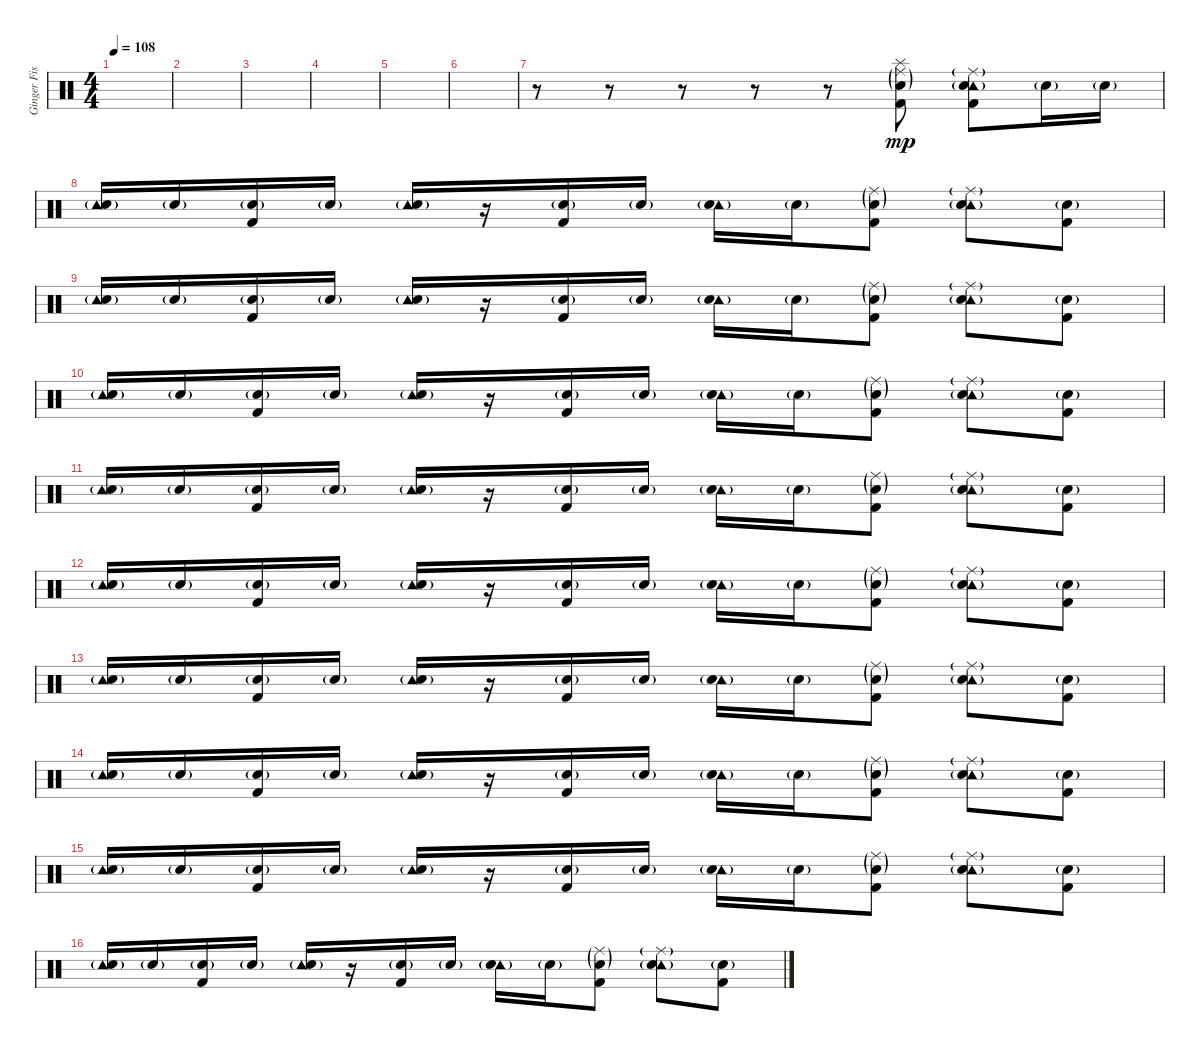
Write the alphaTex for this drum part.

\track ("Ginger Fish" "Ginger Fis") {instrument percussion}
\staff {score}
\articulation defaults
\ts (4 4)
\tempo 108
\clef neutral
\ks c
|
|
|
|
|
|
r.8 r.8 r.8 r.8 r.8 ("Splash (hit)" "Ride (middle)"{g} "Electric Snare (hit)"{g} "Kick (hit) 2").8{dy mp} ("Tambourine (hit)" "Ride (middle)"{g} "Electric Snare (hit)"{g} "Kick (hit) 2").8 "Electric Snare (hit)"{g}.16 "Electric Snare (hit)"{g}.16 |
("Tambourine (hit)" "Electric Snare (hit)"{g}).16 "Electric Snare (hit)"{g}.16 ("Electric Snare (hit)"{g} "Kick (hit) 2").16 "Electric Snare (hit)"{g}.16 ("Tambourine (hit)" "Electric Snare (hit)"{g}).16 r.16 ("Electric Snare (hit)"{g} "Kick (hit) 2").16 "Electric Snare (hit)"{g}.16 ("Tambourine (hit)" "Electric Snare (hit)"{g}).16 "Electric Snare (hit)"{g}.16 ("Ride (middle)"{g} "Electric Snare (hit)"{g} "Kick (hit) 2").8 ("Tambourine (hit)" "Ride (middle)"{g} "Electric Snare (hit)"{g}).8 ("Snare (hit) 2"{g} "Kick (hit) 2").8 |
("Tambourine (hit)" "Electric Snare (hit)"{g}).16 "Electric Snare (hit)"{g}.16 ("Electric Snare (hit)"{g} "Kick (hit) 2").16 "Electric Snare (hit)"{g}.16 ("Tambourine (hit)" "Electric Snare (hit)"{g}).16 r.16 ("Electric Snare (hit)"{g} "Kick (hit) 2").16 "Electric Snare (hit)"{g}.16 ("Tambourine (hit)" "Electric Snare (hit)"{g}).16 "Electric Snare (hit)"{g}.16 ("Ride (middle)"{g} "Electric Snare (hit)"{g} "Kick (hit) 2").8 ("Tambourine (hit)" "Ride (middle)"{g} "Electric Snare (hit)"{g}).8 ("Snare (hit) 2"{g} "Kick (hit) 2").8 |
("Tambourine (hit)" "Electric Snare (hit)"{g}).16 "Electric Snare (hit)"{g}.16 ("Electric Snare (hit)"{g} "Kick (hit) 2").16 "Electric Snare (hit)"{g}.16 ("Tambourine (hit)" "Electric Snare (hit)"{g}).16 r.16 ("Electric Snare (hit)"{g} "Kick (hit) 2").16 "Electric Snare (hit)"{g}.16 ("Tambourine (hit)" "Electric Snare (hit)"{g}).16 "Electric Snare (hit)"{g}.16 ("Ride (middle)"{g} "Electric Snare (hit)"{g} "Kick (hit) 2").8 ("Tambourine (hit)" "Ride (middle)"{g} "Electric Snare (hit)"{g}).8 ("Snare (hit) 2"{g} "Kick (hit) 2").8 |
("Tambourine (hit)" "Electric Snare (hit)"{g}).16 "Electric Snare (hit)"{g}.16 ("Electric Snare (hit)"{g} "Kick (hit) 2").16 "Electric Snare (hit)"{g}.16 ("Tambourine (hit)" "Electric Snare (hit)"{g}).16 r.16 ("Electric Snare (hit)"{g} "Kick (hit) 2").16 "Electric Snare (hit)"{g}.16 ("Tambourine (hit)" "Electric Snare (hit)"{g}).16 "Electric Snare (hit)"{g}.16 ("Ride (middle)"{g} "Electric Snare (hit)"{g} "Kick (hit) 2").8 ("Tambourine (hit)" "Ride (middle)"{g} "Electric Snare (hit)"{g}).8 ("Snare (hit) 2"{g} "Kick (hit) 2").8 |
("Tambourine (hit)" "Electric Snare (hit)"{g}).16 "Electric Snare (hit)"{g}.16 ("Electric Snare (hit)"{g} "Kick (hit) 2").16 "Electric Snare (hit)"{g}.16 ("Tambourine (hit)" "Electric Snare (hit)"{g}).16 r.16 ("Electric Snare (hit)"{g} "Kick (hit) 2").16 "Electric Snare (hit)"{g}.16 ("Tambourine (hit)" "Electric Snare (hit)"{g}).16 "Electric Snare (hit)"{g}.16 ("Ride (middle)"{g} "Electric Snare (hit)"{g} "Kick (hit) 2").8 ("Tambourine (hit)" "Ride (middle)"{g} "Electric Snare (hit)"{g}).8 ("Snare (hit) 2"{g} "Kick (hit) 2").8 |
("Tambourine (hit)" "Electric Snare (hit)"{g}).16 "Electric Snare (hit)"{g}.16 ("Electric Snare (hit)"{g} "Kick (hit) 2").16 "Electric Snare (hit)"{g}.16 ("Tambourine (hit)" "Electric Snare (hit)"{g}).16 r.16 ("Electric Snare (hit)"{g} "Kick (hit) 2").16 "Electric Snare (hit)"{g}.16 ("Tambourine (hit)" "Electric Snare (hit)"{g}).16 "Electric Snare (hit)"{g}.16 ("Ride (middle)"{g} "Electric Snare (hit)"{g} "Kick (hit) 2").8 ("Tambourine (hit)" "Ride (middle)"{g} "Electric Snare (hit)"{g}).8 ("Snare (hit) 2"{g} "Kick (hit) 2").8 |
("Tambourine (hit)" "Electric Snare (hit)"{g}).16 "Electric Snare (hit)"{g}.16 ("Electric Snare (hit)"{g} "Kick (hit) 2").16 "Electric Snare (hit)"{g}.16 ("Tambourine (hit)" "Electric Snare (hit)"{g}).16 r.16 ("Electric Snare (hit)"{g} "Kick (hit) 2").16 "Electric Snare (hit)"{g}.16 ("Tambourine (hit)" "Electric Snare (hit)"{g}).16 "Electric Snare (hit)"{g}.16 ("Ride (middle)"{g} "Electric Snare (hit)"{g} "Kick (hit) 2").8 ("Tambourine (hit)" "Ride (middle)"{g} "Electric Snare (hit)"{g}).8 ("Snare (hit) 2"{g} "Kick (hit) 2").8 |
("Tambourine (hit)" "Electric Snare (hit)"{g}).16 "Electric Snare (hit)"{g}.16 ("Electric Snare (hit)"{g} "Kick (hit) 2").16 "Electric Snare (hit)"{g}.16 ("Tambourine (hit)" "Electric Snare (hit)"{g}).16 r.16 ("Electric Snare (hit)"{g} "Kick (hit) 2").16 "Electric Snare (hit)"{g}.16 ("Tambourine (hit)" "Electric Snare (hit)"{g}).16 "Electric Snare (hit)"{g}.16 ("Ride (middle)"{g} "Electric Snare (hit)"{g} "Kick (hit) 2").8 ("Tambourine (hit)" "Ride (middle)"{g} "Electric Snare (hit)"{g}).8 ("Snare (hit) 2"{g} "Kick (hit) 2").8 |
("Tambourine (hit)" "Electric Snare (hit)"{g}).16 "Electric Snare (hit)"{g}.16 ("Electric Snare (hit)"{g} "Kick (hit) 2").16 "Electric Snare (hit)"{g}.16 ("Tambourine (hit)" "Electric Snare (hit)"{g}).16 r.16 ("Electric Snare (hit)"{g} "Kick (hit) 2").16 "Electric Snare (hit)"{g}.16 ("Tambourine (hit)" "Electric Snare (hit)"{g}).16 "Electric Snare (hit)"{g}.16 ("Ride (middle)"{g} "Electric Snare (hit)"{g} "Kick (hit) 2").8 ("Tambourine (hit)" "Ride (middle)"{g} "Electric Snare (hit)"{g}).8 ("Snare (hit) 2"{g} "Kick (hit) 2").8
